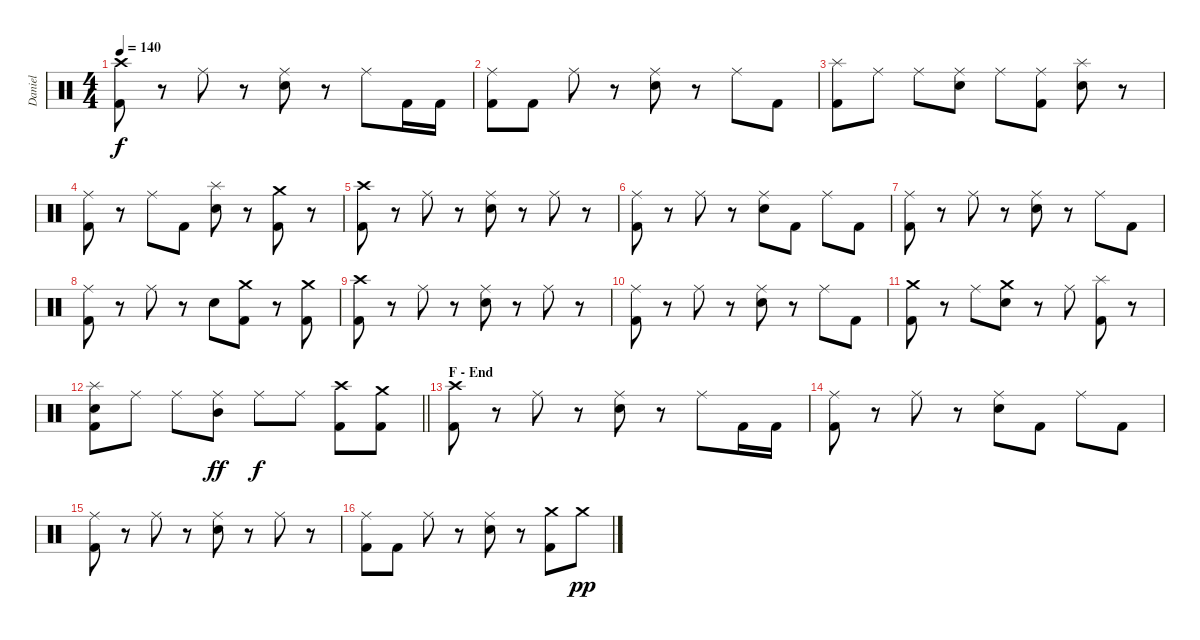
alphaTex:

\track ("Daniel" "Daniel") {instrument percussion}
\staff {score}
\articulation defaults
\ts (4 4)
\tempo 140
\clef neutral
\ks c
("Crash high (hit)" "Kick (hit) 2").8{dy f} r.8 "Ride (middle)".8 r.8 ("Ride (middle)" "Snare (hit) 2").8 r.8 "Ride (middle)".8 "Kick (hit) 2".16 "Kick (hit) 2".16 |
("Ride (middle)" "Kick (hit) 2").8 "Kick (hit) 2".8 "Ride (middle)".8 r.8 ("Ride (middle)" "Snare (hit) 2").8 r.8 "Ride (middle)".8 "Kick (hit) 2".8 |
("Splash (hit)" "Kick (hit) 2").8 "Ride (middle)".8 "Ride (middle)".8 ("Ride (middle)" "Snare (hit) 2").8 "Ride (middle)".8 ("Ride (middle)" "Kick (hit) 2").8 ("Splash (hit)" "Snare (hit) 2").8 r.8 |
("Ride (middle)" "Kick (hit) 2").8 r.8 "Ride (middle)".8 "Kick (hit) 2".8 ("Splash (hit)" "Snare (hit) 2").8 r.8 ("Crash medium (hit)" "Kick (hit) 2").8 r.8 |
("Crash high (hit)" "Kick (hit) 2").8 r.8 "Ride (middle)".8 r.8 ("Ride (middle)" "Snare (hit) 2").8 r.8 "Ride (middle)".8 r.8 |
("Ride (middle)" "Kick (hit) 2").8 r.8 "Ride (middle)".8 r.8 ("Ride (middle)" "Snare (hit) 2").8 "Kick (hit) 2".8 "Ride (middle)".8 "Kick (hit) 2".8 |
("Ride (middle)" "Kick (hit) 2").8 r.8 "Ride (middle)".8 r.8 ("Ride (middle)" "Snare (hit) 2").8 r.8 "Ride (middle)".8 "Kick (hit) 2".8 |
("Ride (middle)" "Kick (hit) 2").8 r.8 "Ride (middle)".8 r.8 "Snare (hit) 2".8 ("Crash medium (hit)" "Kick (hit) 2").8 r.8 ("Crash medium (hit)" "Kick (hit) 2").8 |
("Crash high (hit)" "Kick (hit) 2").8 r.8 "Ride (middle)".8 r.8 ("Ride (middle)" "Snare (hit) 2").8 r.8 "Ride (middle)".8 r.8 |
("Ride (middle)" "Kick (hit) 2").8 r.8 "Ride (middle)".8 r.8 ("Ride (middle)" "Snare (hit) 2").8 r.8 "Ride (middle)".8 "Kick (hit) 2".8 |
("Crash medium (hit)" "Kick (hit) 2").8 r.8 "Ride (middle)".8 ("Crash medium (hit)" "Snare (hit) 2").8 r.8 "Ride (middle)".8 ("Splash (hit)" "Kick (hit) 2").8 r.8 |
\barLineRight lightlight
("Splash (hit)" "Snare (hit) 2" "Kick (hit) 2").8 "Ride (middle)".8 "Ride (middle)".8 ("Ride (middle)" "Mid Tom (hit)").8{dy ff} "Ride (middle)".8{dy f} "Ride (middle)".8 ("Crash high (hit)" "Kick (hit) 2").8 ("Crash medium (hit)" "Kick (hit) 2").8 |
\section ("" "F - End")
("Crash high (hit)" "Kick (hit) 2").8{volume 12} r.8 "Ride (middle)".8 r.8 ("Ride (middle)" "Snare (hit) 2").8 r.8 "Ride (middle)".8 "Kick (hit) 2".16 "Kick (hit) 2".16 |
("Ride (middle)" "Kick (hit) 2").8 r.8 "Ride (middle)".8 r.8 ("Ride (middle)" "Snare (hit) 2").8 "Kick (hit) 2".8 "Ride (middle)".8 "Kick (hit) 2".8 |
("Ride (middle)" "Kick (hit) 2").8 r.8 "Ride (middle)".8 r.8 ("Ride (middle)" "Snare (hit) 2").8 r.8 "Ride (middle)".8 r.8 |
("Ride (middle)" "Kick (hit) 2").8 "Kick (hit) 2".8 "Ride (middle)".8 r.8 ("Ride (middle)" "Snare (hit) 2").8 r.8 ("Crash medium (hit)" "Kick (hit) 2").8 "Crash medium (hit)".8{dy pp}
